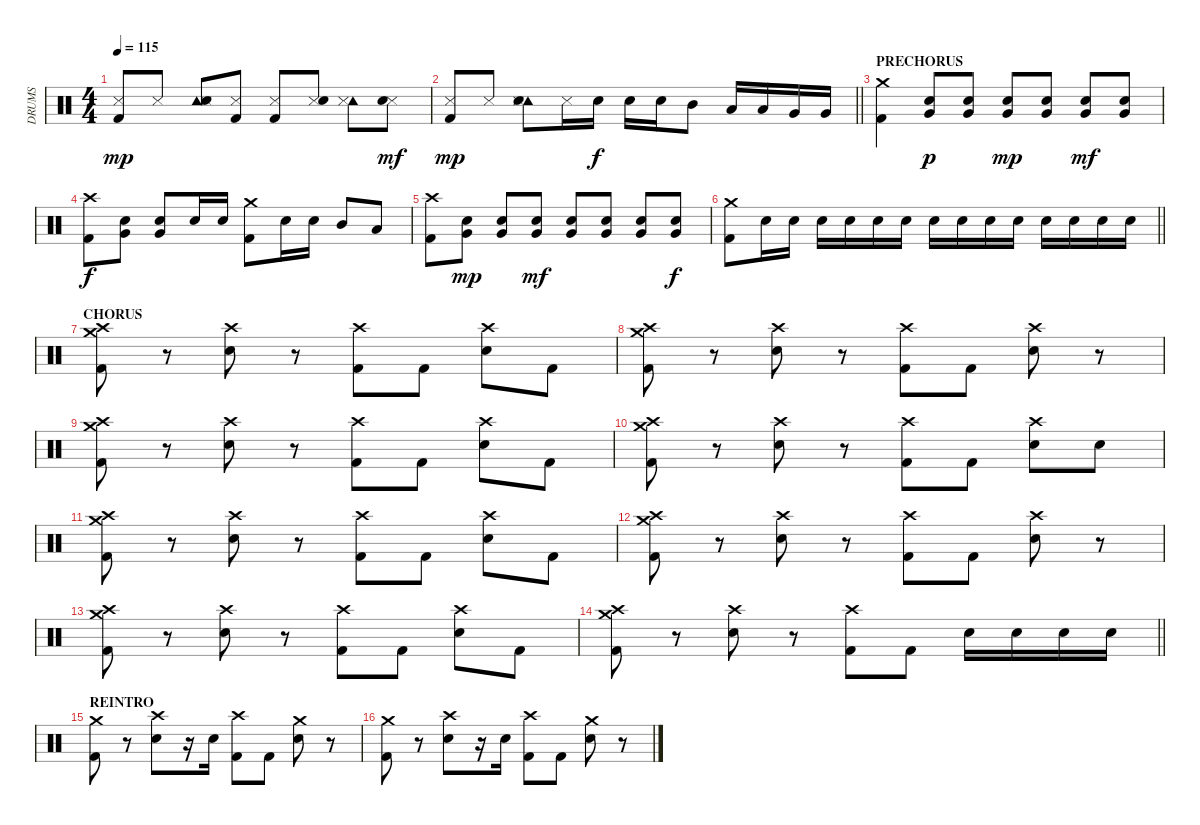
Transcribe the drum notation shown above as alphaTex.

\track ("DRUMS" "DRUMS") {instrument percussion}
\staff {score}
\articulation defaults
\ts (4 4)
\tempo 115
\clef neutral
\ks c
("Snare (side stick) 3" "Kick (hit) 2").8{dy mp} "Snare (side stick) 3".8 ("Tambourine (hit)" "Snare (side stick) 3" "Electric Snare (hit)").8 ("Snare (side stick) 3" "Kick (hit) 2").8 ("Snare (side stick) 3" "Kick (hit) 2").8 ("Snare (side stick) 3" "Electric Snare (hit)").8 ("Tambourine (hit)" "Snare (side stick) 3").8 ("Snare (side stick) 3" "Electric Snare (hit)").8{dy mf} |
\barLineRight lightlight
("Snare (side stick) 3" "Kick (hit) 2").8{dy mp} "Snare (side stick) 3".8 ("Tambourine (hit)" "Snare (side stick) 3" "Electric Snare (hit)").8 "Snare (side stick) 3".16 "Electric Snare (hit)".16{dy f} "Electric Snare (hit)".16 "Electric Snare (hit)".16 "Mid Tom (hit)".8 "Low Tom (hit)".16 "Low Tom (hit)".16 "Very Low Tom (hit)".16 "Very Low Tom (hit)".16 |
\section ("" "PRECHORUS")
("Crash medium (hit)" "Kick (hit) 2").4 ("Electric Snare (hit)" "Very Low Tom (hit)").8{dy p} ("Electric Snare (hit)" "Very Low Tom (hit)").8 ("Electric Snare (hit)" "Very Low Tom (hit)").8{dy mp} ("Electric Snare (hit)" "Very Low Tom (hit)").8 ("Electric Snare (hit)" "Very Low Tom (hit)").8{dy mf} ("Electric Snare (hit)" "Very Low Tom (hit)").8 |
("Crash high (hit)" "Kick (hit) 2").8{dy f} ("Very Low Tom (hit)" "Electric Snare (hit)").8 ("Very Low Tom (hit)" "Electric Snare (hit)").8 "Electric Snare (hit)".16 "Electric Snare (hit)".16 ("Crash medium (hit)" "Kick (hit) 2").8 "Electric Snare (hit)".16 "Electric Snare (hit)".16 "Mid Tom (hit)".8 "Low Tom (hit)".8 |
("Crash high (hit)" "Kick (hit) 2").8 ("Electric Snare (hit)" "Very Low Tom (hit)").8{dy mp} ("Electric Snare (hit)" "Very Low Tom (hit)").8 ("Electric Snare (hit)" "Very Low Tom (hit)").8{dy mf} ("Electric Snare (hit)" "Very Low Tom (hit)").8 ("Electric Snare (hit)" "Very Low Tom (hit)").8 ("Electric Snare (hit)" "Very Low Tom (hit)").8 ("Electric Snare (hit)" "Very Low Tom (hit)").8{dy f} |
\barLineRight lightlight
("Crash medium (hit)" "Kick (hit) 2").8 "Electric Snare (hit)".16 "Electric Snare (hit)".16 "Electric Snare (hit)".16 "Electric Snare (hit)".16 "Electric Snare (hit)".16 "Electric Snare (hit)".16 "Electric Snare (hit)".16 "Electric Snare (hit)".16 "Electric Snare (hit)".16 "Electric Snare (hit)".16 "Electric Snare (hit)".16 "Electric Snare (hit)".16 "Electric Snare (hit)".16 "Electric Snare (hit)".16 |
\section ("" "CHORUS")
("Crash medium (hit)" "Crash high (hit)" "Kick (hit) 2").8 r.8 ("Crash high (hit)" "Electric Snare (hit)").8 r.8 ("Crash high (hit)" "Kick (hit) 2").8 "Kick (hit) 2".8 ("Crash high (hit)" "Electric Snare (hit)").8 "Kick (hit) 2".8 |
("Crash medium (hit)" "Crash high (hit)" "Kick (hit) 2").8 r.8 ("Crash high (hit)" "Electric Snare (hit)").8 r.8 ("Crash high (hit)" "Kick (hit) 2").8 "Kick (hit) 2".8 ("Crash high (hit)" "Electric Snare (hit)").8 r.8 |
("Crash medium (hit)" "Crash high (hit)" "Kick (hit) 2").8 r.8 ("Crash high (hit)" "Electric Snare (hit)").8 r.8 ("Crash high (hit)" "Kick (hit) 2").8 "Kick (hit) 2".8 ("Crash high (hit)" "Electric Snare (hit)").8 "Kick (hit) 2".8 |
("Crash medium (hit)" "Crash high (hit)" "Kick (hit) 2").8 r.8 ("Crash high (hit)" "Electric Snare (hit)").8 r.8 ("Crash high (hit)" "Kick (hit) 2").8 "Kick (hit) 2".8 ("Crash high (hit)" "Electric Snare (hit)").8 "Electric Snare (hit)".8 |
("Crash medium (hit)" "Crash high (hit)" "Kick (hit) 2").8 r.8 ("Crash high (hit)" "Electric Snare (hit)").8 r.8 ("Crash high (hit)" "Kick (hit) 2").8 "Kick (hit) 2".8 ("Crash high (hit)" "Electric Snare (hit)").8 "Kick (hit) 2".8 |
("Crash medium (hit)" "Crash high (hit)" "Kick (hit) 2").8 r.8 ("Crash high (hit)" "Electric Snare (hit)").8 r.8 ("Crash high (hit)" "Kick (hit) 2").8 "Kick (hit) 2".8 ("Crash high (hit)" "Electric Snare (hit)").8 r.8 |
("Crash medium (hit)" "Crash high (hit)" "Kick (hit) 2").8 r.8 ("Crash high (hit)" "Electric Snare (hit)").8 r.8 ("Crash high (hit)" "Kick (hit) 2").8 "Kick (hit) 2".8 ("Crash high (hit)" "Electric Snare (hit)").8 "Kick (hit) 2".8 |
\barLineRight lightlight
("Crash medium (hit)" "Crash high (hit)" "Kick (hit) 2").8 r.8 ("Crash high (hit)" "Electric Snare (hit)").8 r.8 ("Crash high (hit)" "Kick (hit) 2").8 "Kick (hit) 2".8 "Electric Snare (hit)".16 "Electric Snare (hit)".16 "Electric Snare (hit)".16 "Electric Snare (hit)".16 |
\section ("" "REINTRO")
("Crash medium (hit)" "Kick (hit) 2").8 r.8 ("Crash high (hit)" "Electric Snare (hit)").8 r.16 "Electric Snare (hit)".16 ("Crash high (hit)" "Kick (hit) 2").8 "Kick (hit) 2".8 ("Crash medium (hit)" "Electric Snare (hit)").8 r.8 |
("Crash medium (hit)" "Kick (hit) 2").8 r.8 ("Crash high (hit)" "Electric Snare (hit)").8 r.16 "Electric Snare (hit)".16 ("Crash high (hit)" "Kick (hit) 2").8 "Kick (hit) 2".8 ("Crash medium (hit)" "Electric Snare (hit)").8 r.8
